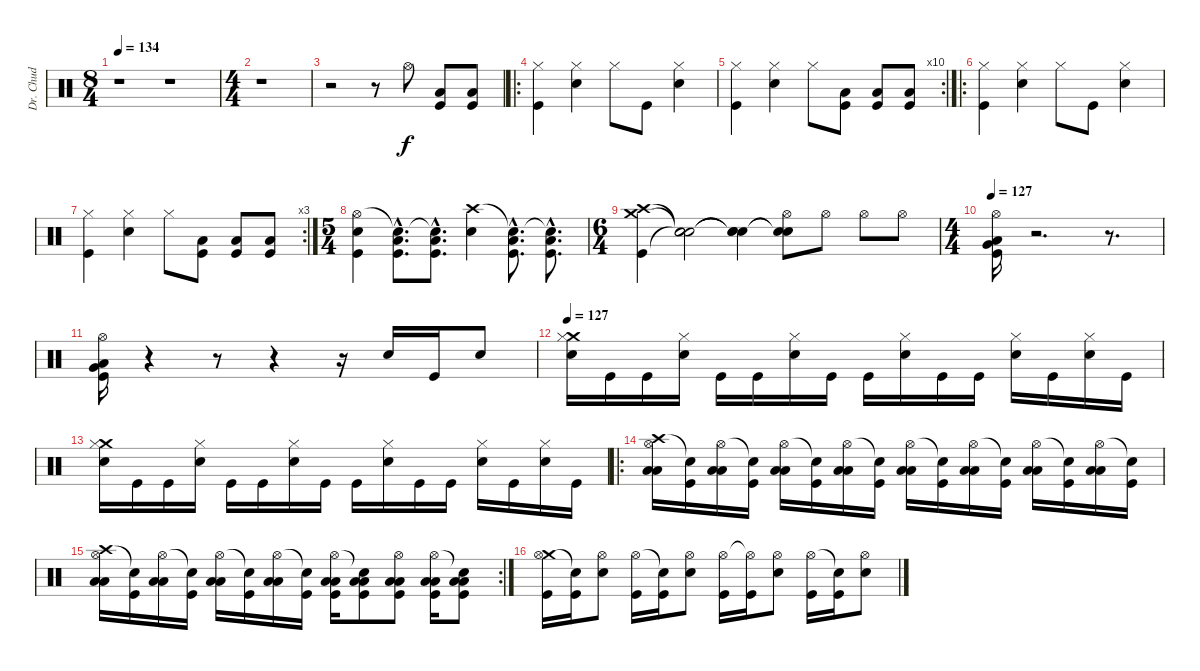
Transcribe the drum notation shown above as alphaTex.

\track ("Dr. Chud" "Dr. Chud") {instrument percussion}
\staff {score}
\articulation defaults
\ts (8 4)
\tempo 134
\clef neutral
\ks c
r.1{dy f} r.1 |
\ts (4 4)
r.1 |
r.2 r.8 "Hi-Hat (open)".8 ("Low Tom (hit)" "Kick (hit)").8 ("Low Tom (hit)" "Kick (hit)").8 |
\ro
("Hi-Hat (closed)" "Kick (hit)").4 ("Hi-Hat (closed)" "Snare (hit) 2").4 "Hi-Hat (closed)".8 "Kick (hit)".8 ("Hi-Hat (closed)" "Snare (hit) 2").4 |
\rc 10
("Hi-Hat (closed)" "Kick (hit)").4 ("Hi-Hat (closed)" "Snare (hit) 2").4 "Hi-Hat (closed)".8 ("Low Tom (hit)" "Kick (hit)").8 ("Low Tom (hit)" "Kick (hit)").8 ("Low Tom (hit)" "Kick (hit)").8 |
\ro
("Hi-Hat (closed)" "Kick (hit)").4 ("Hi-Hat (closed)" "Snare (hit) 2").4 "Hi-Hat (closed)".8 "Kick (hit)".8 ("Hi-Hat (closed)" "Snare (hit) 2").4 |
\rc 3
("Hi-Hat (closed)" "Kick (hit)").4 ("Hi-Hat (closed)" "Snare (hit) 2").4 "Hi-Hat (closed)".8 ("Low Tom (hit)" "Kick (hit)").8 ("Low Tom (hit)" "Kick (hit)").8 ("Low Tom (hit)" "Kick (hit)").8 |
\ts (5 4)
("Hi-Hat (open)" "Snare (hit) 2" "Kick (hit)").4 ("Snare (hit)"{hac t} "Low Tom (hit)"{hac} "Kick (hit)"{hac}).8{d} ("Snare (hit)"{hac t} "Low Tom (hit)"{hac} "Kick (hit)"{hac}).8{d} ("Crash high (hit)" "Snare (hit) 2").4 ("Snare (hit)"{hac t} "Low Tom (hit)"{hac} "Kick (hit)"{hac}).8{d} ("Snare (hit)"{hac t} "Low Tom (hit)"{hac} "Kick (hit)"{hac}).8{d} |
\ts (6 4)
("Crash high (hit)" "Crash medium (hit)" "Kick (hit)").4 ("Snare (hit)"{t} "Snare (hit)"{t} "Snare (hit)"{t}).2 ("Snare (hit)"{t} "Snare (hit)"{t} "Snare (hit)"{t}).4 ("Hi-Hat (open)" "Snare (hit)"{t} "Snare (hit)"{t}).8 "Hi-Hat (open)".8 "Hi-Hat (open)".8 "Hi-Hat (open)".8 |
\ts (4 4)
\tempo 127
("Hi-Hat (open)" "Very Low Tom (hit)" "Low Floor Tom (hit)" "Kick (hit)").16 r.2{d} r.8{d} |
("Hi-Hat (open)" "Very Low Tom (hit)" "Low Floor Tom (hit)" "Kick (hit)").16 r.4 r.8 r.4 r.16 "Snare (hit) 2".16 "Kick (hit)".16 "Snare (hit) 2".8 |
\tempo 127
("Crash medium (hit)" "Hi-Hat (closed)" "Snare (hit) 2").16 "Kick (hit)".16 "Kick (hit)".16 ("Hi-Hat (closed)" "Snare (hit) 2").16 "Kick (hit)".16 "Kick (hit)".16 ("Hi-Hat (closed)" "Snare (hit) 2").16 "Kick (hit)".16 "Kick (hit)".16 ("Hi-Hat (closed)" "Snare (hit) 2").16 "Kick (hit)".16 "Kick (hit)".16 ("Hi-Hat (closed)" "Snare (hit) 2").16 "Kick (hit)".16 ("Hi-Hat (closed)" "Snare (hit) 2").16 "Kick (hit)".16 |
("Crash medium (hit)" "Hi-Hat (closed)" "Snare (hit) 2").16 "Kick (hit)".16 "Kick (hit)".16 ("Hi-Hat (closed)" "Snare (hit) 2").16 "Kick (hit)".16 "Kick (hit)".16 ("Hi-Hat (closed)" "Snare (hit) 2").16 "Kick (hit)".16 "Kick (hit)".16 ("Hi-Hat (closed)" "Snare (hit) 2").16 "Kick (hit)".16 "Kick (hit)".16 ("Hi-Hat (closed)" "Snare (hit) 2").16 "Kick (hit)".16 ("Hi-Hat (closed)" "Snare (hit) 2").16 "Kick (hit)".16 |
\ro
("Crash high (hit)" "Hi-Hat (open)" "Low Floor Tom (hit)" "Low Tom (hit)").16 ("Snare (hit)"{t} "Kick (hit)").16 ("Hi-Hat (open)" "Low Floor Tom (hit)" "Low Tom (hit)").16 ("Snare (hit)"{t} "Kick (hit)").16 ("Hi-Hat (open)" "Low Floor Tom (hit)" "Low Tom (hit)").16 ("Snare (hit)"{t} "Kick (hit)").16 ("Hi-Hat (open)" "Low Floor Tom (hit)" "Low Tom (hit)").16 ("Snare (hit)"{t} "Kick (hit)").16 ("Hi-Hat (open)" "Low Floor Tom (hit)" "Low Tom (hit)").16 ("Snare (hit)"{t} "Kick (hit)").16 ("Hi-Hat (open)" "Low Floor Tom (hit)" "Low Tom (hit)").16 ("Snare (hit)"{t} "Kick (hit)").16 ("Hi-Hat (open)" "Low Floor Tom (hit)" "Low Tom (hit)").16 ("Snare (hit)"{t} "Kick (hit)").16 ("Hi-Hat (open)" "Low Floor Tom (hit)" "Low Tom (hit)").16 ("Snare (hit)"{t} "Kick (hit)").16 |
\rc 2
("Crash high (hit)" "Hi-Hat (open)" "Low Floor Tom (hit)" "Low Tom (hit)").16 ("Snare (hit)"{t} "Kick (hit)").16 ("Hi-Hat (open)" "Low Floor Tom (hit)" "Low Tom (hit)").16 ("Snare (hit)"{t} "Kick (hit)").16 ("Hi-Hat (open)" "Low Floor Tom (hit)" "Low Tom (hit)").16 ("Snare (hit)"{t} "Kick (hit)").16 ("Hi-Hat (open)" "Low Floor Tom (hit)" "Low Tom (hit)").16 ("Snare (hit)"{t} "Kick (hit)").16 ("Hi-Hat (open)" "Low Floor Tom (hit)" "Low Tom (hit)" "Kick (hit)").16 ("Snare (hit)"{t} "Low Floor Tom (hit)" "Low Tom (hit)" "Kick (hit)").8 ("Hi-Hat (open)" "Low Floor Tom (hit)" "Low Tom (hit)" "Kick (hit)").8 ("Hi-Hat (open)" "Low Floor Tom (hit)" "Low Tom (hit)" "Kick (hit)").16 ("Snare (hit)"{t} "Low Floor Tom (hit)" "Low Tom (hit)" "Kick (hit)").8 |
("Crash medium (hit)" "Hi-Hat (open)" "Kick (hit)").16 ("Snare (hit)"{t} "Kick (hit)").16 ("Hi-Hat (open)" "Snare (hit) 2").8 ("Hi-Hat (open)" "Kick (hit)").16 ("Snare (hit)"{t} "Kick (hit)").16 ("Hi-Hat (open)" "Snare (hit) 2").8 ("Hi-Hat (open)" "Kick (hit)").16 ("Hi-Hat (open)"{t} "Kick (hit)").16 ("Hi-Hat (open)" "Snare (hit) 2").8 ("Hi-Hat (open)" "Kick (hit)").16 ("Snare (hit)"{t} "Kick (hit)").16 ("Hi-Hat (open)" "Snare (hit) 2").8
